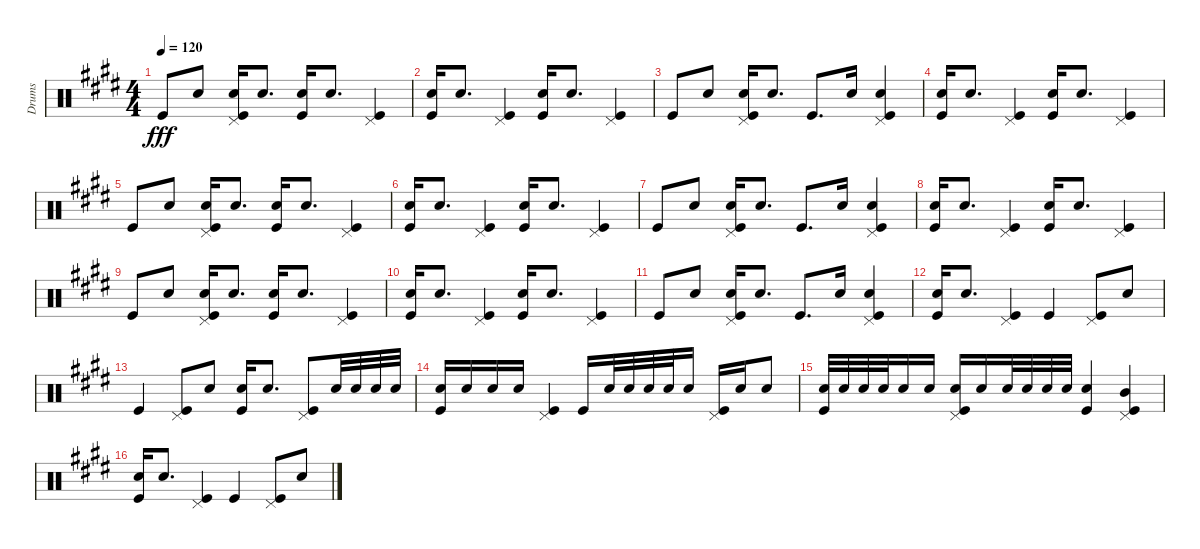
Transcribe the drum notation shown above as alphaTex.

\track ("Drums" "Drums") {instrument percussion}
\staff {score}
\articulation defaults
\ts (4 4)
\tempo 120
\clef neutral
\ks e "Kick (hit)".8{dy fff} "Snare (hit) 2".8
("Pedal Hi-Hat (hit)" "Snare (hit) 2" "Kick (hit)").16 "Snare (hit) 2".8{d} ("Snare (hit) 2" "Kick (hit)").16 "Snare (hit) 2".8{d} ("Pedal Hi-Hat (hit)" "Kick (hit)").4 |
("Snare (hit) 2" "Kick (hit)").16 "Snare (hit) 2".8{d} ("Pedal Hi-Hat (hit)" "Kick (hit)").4 ("Snare (hit) 2" "Kick (hit)").16 "Snare (hit) 2".8{d} ("Pedal Hi-Hat (hit)" "Kick (hit)").4 |
"Kick (hit)".8 "Snare (hit) 2".8 ("Pedal Hi-Hat (hit)" "Snare (hit) 2" "Kick (hit)").16 "Snare (hit) 2".8{d} "Kick (hit)".8{d} "Snare (hit) 2".16 ("Pedal Hi-Hat (hit)" "Snare (hit) 2" "Kick (hit)").4 |
("Snare (hit) 2" "Kick (hit)").16 "Snare (hit) 2".8{d} ("Pedal Hi-Hat (hit)" "Kick (hit)").4 ("Snare (hit) 2" "Kick (hit)").16 "Snare (hit) 2".8{d} ("Pedal Hi-Hat (hit)" "Kick (hit)").4 |
"Kick (hit)".8 "Snare (hit) 2".8 ("Pedal Hi-Hat (hit)" "Snare (hit) 2" "Kick (hit)").16 "Snare (hit) 2".8{d} ("Snare (hit) 2" "Kick (hit)").16 "Snare (hit) 2".8{d} ("Pedal Hi-Hat (hit)" "Kick (hit)").4 |
("Snare (hit) 2" "Kick (hit)").16 "Snare (hit) 2".8{d} ("Pedal Hi-Hat (hit)" "Kick (hit)").4 ("Snare (hit) 2" "Kick (hit)").16 "Snare (hit) 2".8{d} ("Pedal Hi-Hat (hit)" "Kick (hit)").4 |
"Kick (hit)".8 "Snare (hit) 2".8 ("Pedal Hi-Hat (hit)" "Snare (hit) 2" "Kick (hit)").16 "Snare (hit) 2".8{d} "Kick (hit)".8{d} "Snare (hit) 2".16 ("Pedal Hi-Hat (hit)" "Snare (hit) 2" "Kick (hit)").4 |
("Snare (hit) 2" "Kick (hit)").16 "Snare (hit) 2".8{d} ("Pedal Hi-Hat (hit)" "Kick (hit)").4 ("Snare (hit) 2" "Kick (hit)").16 "Snare (hit) 2".8{d} ("Pedal Hi-Hat (hit)" "Kick (hit)").4 |
"Kick (hit)".8 "Snare (hit) 2".8 ("Pedal Hi-Hat (hit)" "Snare (hit) 2" "Kick (hit)").16 "Snare (hit) 2".8{d} ("Snare (hit) 2" "Kick (hit)").16 "Snare (hit) 2".8{d} ("Pedal Hi-Hat (hit)" "Kick (hit)").4 |
("Snare (hit) 2" "Kick (hit)").16 "Snare (hit) 2".8{d} ("Pedal Hi-Hat (hit)" "Kick (hit)").4 ("Snare (hit) 2" "Kick (hit)").16 "Snare (hit) 2".8{d} ("Pedal Hi-Hat (hit)" "Kick (hit)").4 |
"Kick (hit)".8 "Snare (hit) 2".8 ("Pedal Hi-Hat (hit)" "Snare (hit) 2" "Kick (hit)").16 "Snare (hit) 2".8{d} "Kick (hit)".8{d} "Snare (hit) 2".16 ("Pedal Hi-Hat (hit)" "Snare (hit) 2" "Kick (hit)").4 |
("Snare (hit) 2" "Kick (hit)").16 "Snare (hit) 2".8{d} ("Pedal Hi-Hat (hit)" "Kick (hit)").4 "Kick (hit)".4 ("Pedal Hi-Hat (hit)" "Kick (hit)").8 "Snare (hit) 2".8 |
"Kick (hit)".4 ("Pedal Hi-Hat (hit)" "Kick (hit)").8 "Snare (hit) 2".8 ("Snare (hit) 2" "Kick (hit)").16 "Snare (hit) 2".8{d} ("Pedal Hi-Hat (hit)" "Kick (hit)").8 "Snare (hit) 2".32 "Snare (hit) 2".32 "Snare (hit) 2".32 "Snare (hit) 2".32 |
("Snare (hit) 2" "Kick (hit)").16 "Snare (hit) 2".16 "Snare (hit) 2".16 "Snare (hit) 2".16 ("Pedal Hi-Hat (hit)" "Kick (hit)").4 "Kick (hit)".16 "Snare (hit) 2".32 "Snare (hit) 2".32 "Snare (hit) 2".32 "Snare (hit) 2".32 "Snare (hit) 2".16 ("Pedal Hi-Hat (hit)" "Kick (hit)").16 "Snare (hit) 2".16 "Snare (hit) 2".8 |
("Snare (hit) 2" "Kick (hit)").32 "Snare (hit) 2".32 "Snare (hit) 2".32 "Snare (hit) 2".32 "Snare (hit) 2".16 "Snare (hit) 2".16 ("Pedal Hi-Hat (hit)" "Snare (hit) 2" "Kick (hit)").16 "Snare (hit) 2".16 "Snare (hit) 2".32 "Snare (hit) 2".32 "Snare (hit) 2".32 "Snare (hit) 2".32 ("Snare (hit) 2" "Kick (hit)").4 ("Pedal Hi-Hat (hit)" "Mid Tom (hit)" "Kick (hit)").4 |
("Snare (hit) 2" "Kick (hit)").16 "Snare (hit) 2".8{d} ("Pedal Hi-Hat (hit)" "Kick (hit)").4 "Kick (hit)".4 ("Pedal Hi-Hat (hit)" "Kick (hit)").8 "Snare (hit) 2".8
